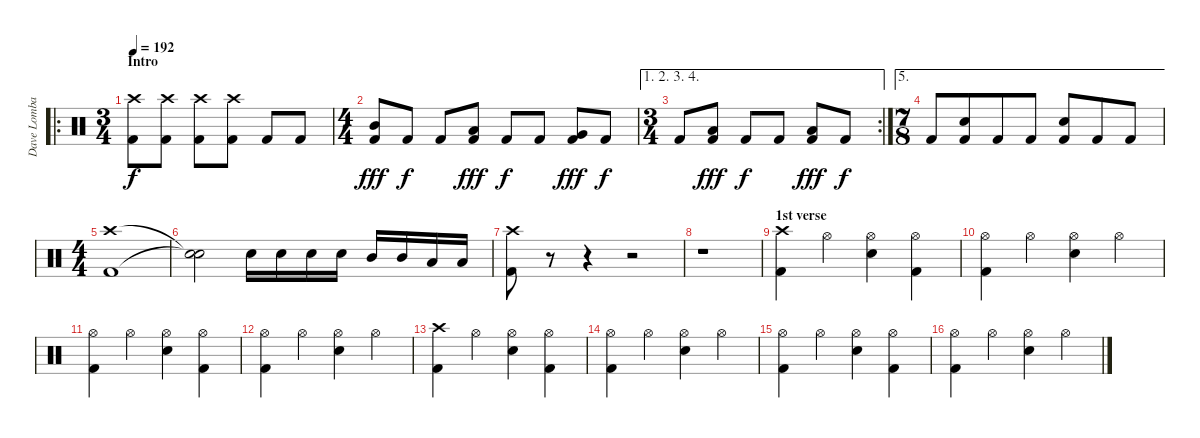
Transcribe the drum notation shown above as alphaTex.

\track ("Dave Lombardo" "Dave Lomba") {instrument percussion}
\staff {score}
\articulation defaults
\ro
\ts (3 4)
\section ("" "Intro")
\tempo 192
\clef neutral
\ks c
("Crash high (hit)" "Kick (hit) 2").8{dy f} ("Crash high (hit)" "Kick (hit) 2").8 ("Crash high (hit)" "Kick (hit) 2").8 ("Crash high (hit)" "Kick (hit) 2").8 "Kick (hit) 2".8 "Kick (hit) 2".8 |
\ts (4 4)
("Mid Tom (hit)" "Kick (hit) 2").8{dy fff} "Kick (hit) 2".8{dy f} "Kick (hit) 2".8 ("Low Tom (hit)" "Kick (hit) 2").8{dy fff} "Kick (hit) 2".8{dy f} "Kick (hit) 2".8 ("Very Low Tom (hit)" "Kick (hit) 2").8{dy fff} "Kick (hit) 2".8{dy f} |
\ae (1 2 3 4)
\rc 2
\ts (3 4)
"Kick (hit) 2".8 ("Low Floor Tom (hit)" "Kick (hit) 2").8{dy fff} "Kick (hit) 2".8{dy f} "Kick (hit) 2".8 ("Low Floor Tom (hit)" "Kick (hit) 2").8{dy fff} "Kick (hit) 2".8{dy f} |
\ae 5
\ts (7 8)
"Kick (hit) 2".8 ("Electric Snare (hit)" "Kick (hit) 2").8 "Kick (hit) 2".8 "Kick (hit) 2".8 ("Electric Snare (hit)" "Kick (hit) 2").8 "Kick (hit) 2".8 "Kick (hit) 2".8 |
\ts (4 4)
("Crash high (hit)" "Kick (hit) 2").1 |
("Snare (hit)"{t} "Snare (hit)"{t}).2 "Electric Snare (hit)".16 "Electric Snare (hit)".16 "Electric Snare (hit)".16 "Electric Snare (hit)".16 "Mid Tom (hit)".16 "Mid Tom (hit)".16 "Low Tom (hit)".16 "Low Tom (hit)".16 |
("Crash high (hit)" "Kick (hit) 2").8 r.8 r.4 r.2 |
r.1 |
\section ("" "1st verse")
("Crash high (hit)" "Kick (hit) 2").4 "Hi-Hat (open)".4 ("Hi-Hat (open)" "Electric Snare (hit)").4 ("Hi-Hat (open)" "Kick (hit) 2").4 |
("Hi-Hat (open)" "Kick (hit) 2").4 "Hi-Hat (open)".4 ("Hi-Hat (open)" "Electric Snare (hit)").4 "Hi-Hat (open)".4 |
("Hi-Hat (open)" "Kick (hit) 2").4 "Hi-Hat (open)".4 ("Hi-Hat (open)" "Electric Snare (hit)").4 ("Hi-Hat (open)" "Kick (hit) 2").4 |
("Hi-Hat (open)" "Kick (hit) 2").4 "Hi-Hat (open)".4 ("Hi-Hat (open)" "Electric Snare (hit)").4 "Hi-Hat (open)".4 |
("Crash high (hit)" "Kick (hit) 2").4 "Hi-Hat (open)".4 ("Hi-Hat (open)" "Electric Snare (hit)").4 ("Hi-Hat (open)" "Kick (hit) 2").4 |
("Hi-Hat (open)" "Kick (hit) 2").4 "Hi-Hat (open)".4 ("Hi-Hat (open)" "Electric Snare (hit)").4 "Hi-Hat (open)".4 |
("Hi-Hat (open)" "Kick (hit) 2").4 "Hi-Hat (open)".4 ("Hi-Hat (open)" "Electric Snare (hit)").4 ("Hi-Hat (open)" "Kick (hit) 2").4 |
("Hi-Hat (open)" "Kick (hit) 2").4 "Hi-Hat (open)".4 ("Hi-Hat (open)" "Electric Snare (hit)").4 "Hi-Hat (open)".4
